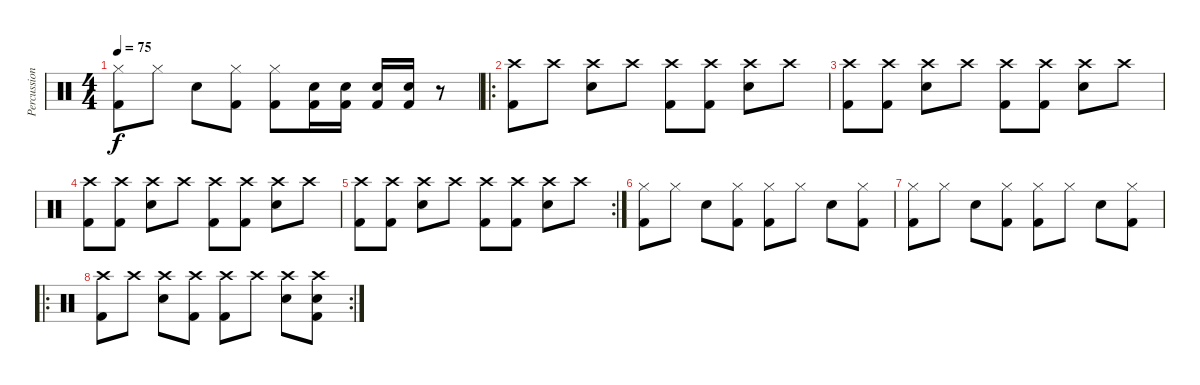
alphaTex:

\track ("Percussion" "Percussion") {instrument percussion}
\staff {score}
\articulation defaults
\ts (4 4)
\tempo 75
\clef neutral
\ks c
("Kick (hit) 2" "Hi-Hat (closed)").8{dy f} "Hi-Hat (closed)".8 "Snare (hit) 2".8 ("Kick (hit) 2" "Hi-Hat (closed)").8 ("Kick (hit) 2" "Hi-Hat (closed)").8 ("Snare (hit) 2" "Kick (hit) 2").16 ("Snare (hit) 2" "Kick (hit) 2").16 ("Snare (hit) 2" "Kick (hit) 2").16 ("Snare (hit) 2" "Kick (hit) 2").16 r.8 |
\ro
("Kick (hit) 2" "Crash high (hit)").8 "Crash high (hit)".8 ("Snare (hit) 2" "Crash high (hit)").8 "Crash high (hit)".8 ("Kick (hit) 2" "Crash high (hit)").8 ("Kick (hit) 2" "Crash high (hit)").8 ("Snare (hit) 2" "Crash high (hit)").8 "Crash high (hit)".8 |
("Kick (hit) 2" "Crash high (hit)").8 ("Kick (hit) 2" "Crash high (hit)").8 ("Snare (hit) 2" "Crash high (hit)").8 "Crash high (hit)".8 ("Kick (hit) 2" "Crash high (hit)").8 ("Kick (hit) 2" "Crash high (hit)").8 ("Snare (hit) 2" "Crash high (hit)").8 "Crash high (hit)".8 |
("Kick (hit) 2" "Crash high (hit)").8 ("Kick (hit) 2" "Crash high (hit)").8 ("Snare (hit) 2" "Crash high (hit)").8 "Crash high (hit)".8 ("Kick (hit) 2" "Crash high (hit)").8 ("Kick (hit) 2" "Crash high (hit)").8 ("Snare (hit) 2" "Crash high (hit)").8 "Crash high (hit)".8 |
\rc 2
("Kick (hit) 2" "Crash high (hit)").8 ("Kick (hit) 2" "Crash high (hit)").8 ("Snare (hit) 2" "Crash high (hit)").8 "Crash high (hit)".8 ("Kick (hit) 2" "Crash high (hit)").8 ("Kick (hit) 2" "Crash high (hit)").8 ("Snare (hit) 2" "Crash high (hit)").8 "Crash high (hit)".8 |
("Kick (hit) 2" "Hi-Hat (closed)").8 "Hi-Hat (closed)".8 "Snare (hit) 2".8 ("Kick (hit) 2" "Hi-Hat (closed)").8 ("Kick (hit) 2" "Hi-Hat (closed)").8 "Hi-Hat (closed)".8 "Snare (hit) 2".8 ("Kick (hit) 2" "Hi-Hat (closed)").8 |
("Kick (hit) 2" "Hi-Hat (closed)").8 "Hi-Hat (closed)".8 "Snare (hit) 2".8 ("Kick (hit) 2" "Hi-Hat (closed)").8 ("Kick (hit) 2" "Hi-Hat (closed)").8 "Hi-Hat (closed)".8 "Snare (hit) 2".8 ("Kick (hit) 2" "Hi-Hat (closed)").8 |
\ro
\rc 2
("Kick (hit) 2" "Crash high (hit)").8 "Crash high (hit)".8 ("Snare (hit) 2" "Crash high (hit)").8 ("Kick (hit) 2" "Crash high (hit)").8 ("Kick (hit) 2" "Crash high (hit)").8 "Crash high (hit)".8 ("Snare (hit) 2" "Crash high (hit)").8 ("Kick (hit) 2" "Snare (hit) 2" "Crash high (hit)").8
